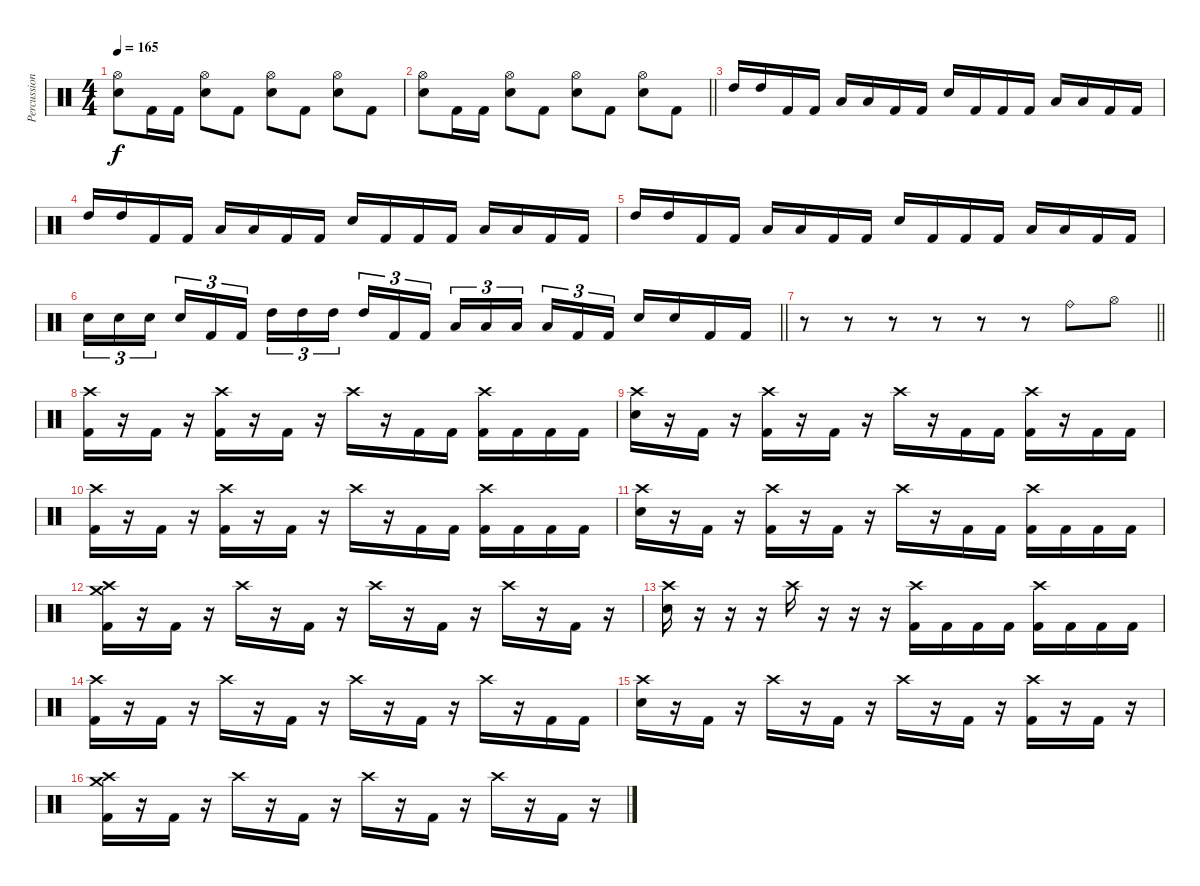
\track ("Percussion" "Percussion") {instrument percussion}
\staff {score}
\articulation defaults
\ts (4 4)
\section ("" "")
\tempo 165
\clef neutral
\ks c
("Hi-Hat (open)" "Snare (hit) 2").8{dy f} "Kick (hit) 2".16 "Kick (hit) 2".16 ("Hi-Hat (open)" "Snare (hit) 2").8 "Kick (hit) 2".8 ("Hi-Hat (open)" "Snare (hit) 2").8 "Kick (hit) 2".8 ("Hi-Hat (open)" "Snare (hit) 2").8 "Kick (hit) 2".8 |
\barLineRight lightlight
("Hi-Hat (open)" "Snare (hit) 2").8 "Kick (hit) 2".16 "Kick (hit) 2".16 ("Hi-Hat (open)" "Snare (hit) 2").8 "Kick (hit) 2".8 ("Hi-Hat (open)" "Snare (hit) 2").8 "Kick (hit) 2".8 ("Hi-Hat (open)" "Snare (hit) 2").8 "Kick (hit) 2".8 |
\section ("" "")
"High Tom (hit)".16 "High Tom (hit)".16 "Kick (hit) 2".16 "Kick (hit) 2".16 "Low Tom (hit)".16 "Low Tom (hit)".16 "Kick (hit) 2".16 "Kick (hit) 2".16 "Snare (hit) 2".16 "Kick (hit) 2".16 "Kick (hit) 2".16 "Kick (hit) 2".16 "Low Tom (hit)".16 "Low Tom (hit)".16 "Kick (hit) 2".16 "Kick (hit) 2".16 |
"High Tom (hit)".16 "High Tom (hit)".16 "Kick (hit) 2".16 "Kick (hit) 2".16 "Low Tom (hit)".16 "Low Tom (hit)".16 "Kick (hit) 2".16 "Kick (hit) 2".16 "Snare (hit) 2".16 "Kick (hit) 2".16 "Kick (hit) 2".16 "Kick (hit) 2".16 "Low Tom (hit)".16 "Low Tom (hit)".16 "Kick (hit) 2".16 "Kick (hit) 2".16 |
"High Tom (hit)".16 "High Tom (hit)".16 "Kick (hit) 2".16 "Kick (hit) 2".16 "Low Tom (hit)".16 "Low Tom (hit)".16 "Kick (hit) 2".16 "Kick (hit) 2".16 "Snare (hit) 2".16 "Kick (hit) 2".16 "Kick (hit) 2".16 "Kick (hit) 2".16 "Low Tom (hit)".16 "Low Tom (hit)".16 "Kick (hit) 2".16 "Kick (hit) 2".16 |
\barLineRight lightlight "Snare (hit) 2".16{tu (3 2)} "Snare (hit) 2".16{tu (3 2)} "Snare (hit) 2".16{tu (3 2) beam splitsecondary} "Snare (hit) 2".16{tu (3 2)} "Kick (hit) 2".16{tu (3 2)} "Kick (hit) 2".16{tu (3 2)} "High Tom (hit)".16{tu (3 2)} "High Tom (hit)".16{tu (3 2)} "High Tom (hit)".16{tu (3 2) beam splitsecondary} "High Tom (hit)".16{tu (3 2)} "Kick (hit) 2".16{tu (3 2)} "Kick (hit) 2".16{tu (3 2)} "Low Tom (hit)".16{tu (3 2)} "Low Tom (hit)".16{tu (3 2)} "Low Tom (hit)".16{tu (3 2) beam splitsecondary} "Low Tom (hit)".16{tu (3 2)} "Kick (hit) 2".16{tu (3 2)} "Kick (hit) 2".16{tu (3 2)} "Snare (hit) 2".16 "Snare (hit) 2".16 "Kick (hit) 2".16 "Kick (hit) 2".16
|
\section ("" "")
\barLineRight lightlight
r.8 r.8 r.8 r.8 r.8 r.8 "Ride (bell)".8 "Hi-Hat (open)".8 |
\section ("" "")
("Crash high (hit)" "Kick (hit) 2").16 r.16 "Kick (hit) 2".16 r.16 ("Crash high (hit)" "Kick (hit) 2").16 r.16 "Kick (hit) 2".16 r.16 "Crash high (hit)".16 r.16 "Kick (hit) 2".16 "Kick (hit) 2".16 ("Crash high (hit)" "Kick (hit) 2").16 "Kick (hit) 2".16 "Kick (hit) 2".16 "Kick (hit) 2".16 |
("Crash high (hit)" "Snare (hit) 2").16 r.16 "Kick (hit) 2".16 r.16 ("Crash high (hit)" "Kick (hit) 2").16 r.16 "Kick (hit) 2".16 r.16 "Crash high (hit)".16 r.16 "Kick (hit) 2".16 "Kick (hit) 2".16 ("Crash high (hit)" "Kick (hit) 2").16 r.16 "Kick (hit) 2".16 "Kick (hit) 2".16 |
("Crash high (hit)" "Kick (hit) 2").16 r.16 "Kick (hit) 2".16 r.16 ("Crash high (hit)" "Kick (hit) 2").16 r.16 "Kick (hit) 2".16 r.16 "Crash high (hit)".16 r.16 "Kick (hit) 2".16 "Kick (hit) 2".16 ("Crash high (hit)" "Kick (hit) 2").16 "Kick (hit) 2".16 "Kick (hit) 2".16 "Kick (hit) 2".16 |
("Crash high (hit)" "Snare (hit) 2").16 r.16 "Kick (hit) 2".16 r.16 ("Crash high (hit)" "Kick (hit) 2").16 r.16 "Kick (hit) 2".16 r.16 "Crash high (hit)".16 r.16 "Kick (hit) 2".16 "Kick (hit) 2".16 ("Crash high (hit)" "Kick (hit) 2").16 "Kick (hit) 2".16 "Kick (hit) 2".16 "Kick (hit) 2".16 |
("Crash high (hit)" "Crash medium (hit)" "Kick (hit) 2").16 r.16 "Kick (hit) 2".16 r.16 "Crash high (hit)".16 r.16 "Kick (hit) 2".16 r.16 "Crash high (hit)".16 r.16 "Kick (hit) 2".16 r.16 "Crash high (hit)".16 r.16 "Kick (hit) 2".16 r.16 |
("Crash high (hit)" "Snare (hit) 2").16 r.16 r.16 r.16 "Crash high (hit)".16 r.16 r.16 r.16 ("Crash high (hit)" "Kick (hit) 2").16 "Kick (hit) 2".16 "Kick (hit) 2".16 "Kick (hit) 2".16 ("Crash high (hit)" "Kick (hit) 2").16 "Kick (hit) 2".16 "Kick (hit) 2".16 "Kick (hit) 2".16 |
("Crash high (hit)" "Kick (hit) 2").16 r.16 "Kick (hit) 2".16 r.16 "Crash high (hit)".16 r.16 "Kick (hit) 2".16 r.16 "Crash high (hit)".16 r.16 "Kick (hit) 2".16 r.16 "Crash high (hit)".16 r.16 "Kick (hit) 2".16 "Kick (hit) 2".16 |
("Crash high (hit)" "Snare (hit) 2").16 r.16 "Kick (hit) 2".16 r.16 "Crash high (hit)".16 r.16 "Kick (hit) 2".16 r.16 "Crash high (hit)".16 r.16 "Kick (hit) 2".16 r.16 ("Crash high (hit)" "Kick (hit) 2").16 r.16 "Kick (hit) 2".16 r.16 |
("Crash high (hit)" "Crash medium (hit)" "Kick (hit) 2").16 r.16 "Kick (hit) 2".16 r.16 "Crash high (hit)".16 r.16 "Kick (hit) 2".16 r.16 "Crash high (hit)".16 r.16 "Kick (hit) 2".16 r.16 "Crash high (hit)".16 r.16 "Kick (hit) 2".16 r.16
